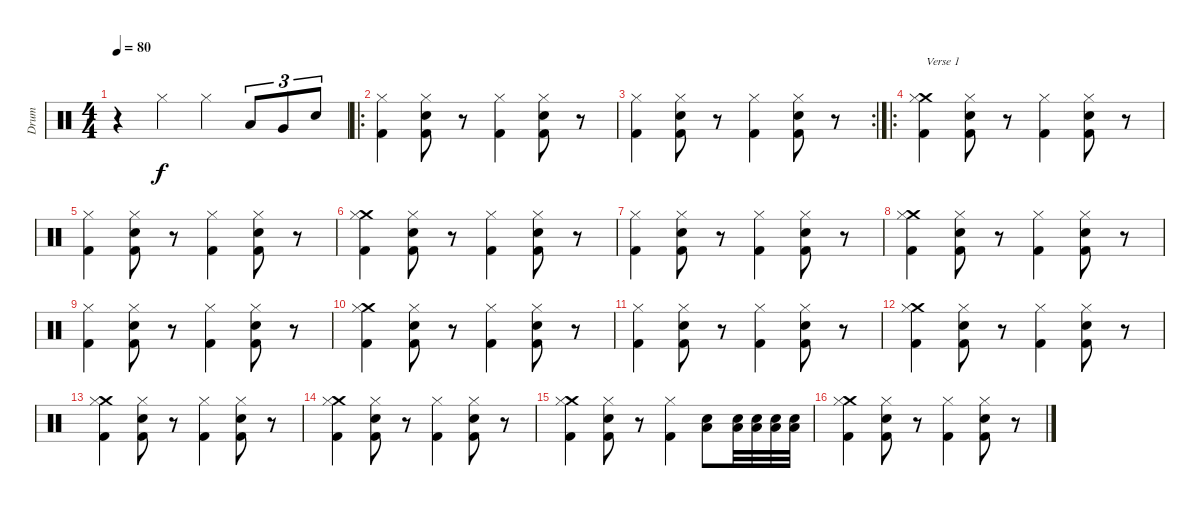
\track ("Drum" "Drum") {instrument percussion}
\staff {score}
\articulation defaults
\ts (4 4)
\tempo 80
\clef neutral
\ks c
r.4{dy f} "Hi-Hat (closed)".4 "Hi-Hat (closed)".4 "Low Tom (hit)".8{tu (3 2)} "Very Low Tom (hit)".8{tu (3 2)} "Electric Snare (hit)".8{tu (3 2)} |
\ro
("Kick (hit) 2" "Hi-Hat (closed)").4 ("Hi-Hat (closed)" "Electric Snare (hit)" "Kick (hit) 2").8 r.8 ("Kick (hit) 2" "Hi-Hat (closed)").4 ("Hi-Hat (closed)" "Electric Snare (hit)" "Kick (hit) 2").8 r.8 |
\rc 2
("Kick (hit) 2" "Hi-Hat (closed)").4 ("Hi-Hat (closed)" "Electric Snare (hit)" "Kick (hit) 2").8 r.8 ("Kick (hit) 2" "Hi-Hat (closed)").4 ("Hi-Hat (closed)" "Electric Snare (hit)" "Kick (hit) 2").8 r.8 |
\ro
("Crash medium (hit)" "Kick (hit) 2" "Hi-Hat (closed)").4{txt "Verse 1"} ("Hi-Hat (closed)" "Electric Snare (hit)" "Kick (hit) 2").8 r.8 ("Kick (hit) 2" "Hi-Hat (closed)").4 ("Hi-Hat (closed)" "Electric Snare (hit)" "Kick (hit) 2").8 r.8 |
("Kick (hit) 2" "Hi-Hat (closed)").4 ("Hi-Hat (closed)" "Electric Snare (hit)" "Kick (hit) 2").8 r.8 ("Kick (hit) 2" "Hi-Hat (closed)").4 ("Hi-Hat (closed)" "Electric Snare (hit)" "Kick (hit) 2").8 r.8 |
("Crash medium (hit)" "Kick (hit) 2" "Hi-Hat (closed)").4 ("Hi-Hat (closed)" "Electric Snare (hit)" "Kick (hit) 2").8 r.8 ("Kick (hit) 2" "Hi-Hat (closed)").4 ("Hi-Hat (closed)" "Electric Snare (hit)" "Kick (hit) 2").8 r.8 |
("Kick (hit) 2" "Hi-Hat (closed)").4 ("Hi-Hat (closed)" "Electric Snare (hit)" "Kick (hit) 2").8 r.8 ("Kick (hit) 2" "Hi-Hat (closed)").4 ("Hi-Hat (closed)" "Electric Snare (hit)" "Kick (hit) 2").8 r.8 |
("Crash medium (hit)" "Kick (hit) 2" "Hi-Hat (closed)").4 ("Hi-Hat (closed)" "Electric Snare (hit)" "Kick (hit) 2").8 r.8 ("Kick (hit) 2" "Hi-Hat (closed)").4 ("Hi-Hat (closed)" "Electric Snare (hit)" "Kick (hit) 2").8 r.8 |
("Kick (hit) 2" "Hi-Hat (closed)").4 ("Hi-Hat (closed)" "Electric Snare (hit)" "Kick (hit) 2").8 r.8 ("Kick (hit) 2" "Hi-Hat (closed)").4 ("Hi-Hat (closed)" "Electric Snare (hit)" "Kick (hit) 2").8 r.8 |
("Crash medium (hit)" "Kick (hit) 2" "Hi-Hat (closed)").4 ("Hi-Hat (closed)" "Electric Snare (hit)" "Kick (hit) 2").8 r.8 ("Kick (hit) 2" "Hi-Hat (closed)").4 ("Hi-Hat (closed)" "Electric Snare (hit)" "Kick (hit) 2").8 r.8 |
("Kick (hit) 2" "Hi-Hat (closed)").4 ("Hi-Hat (closed)" "Electric Snare (hit)" "Kick (hit) 2").8 r.8 ("Kick (hit) 2" "Hi-Hat (closed)").4 ("Hi-Hat (closed)" "Electric Snare (hit)" "Kick (hit) 2").8 r.8 |
("Crash medium (hit)" "Kick (hit) 2" "Hi-Hat (closed)").4 ("Hi-Hat (closed)" "Electric Snare (hit)" "Kick (hit) 2").8 r.8 ("Kick (hit) 2" "Hi-Hat (closed)").4 ("Hi-Hat (closed)" "Electric Snare (hit)" "Kick (hit) 2").8 r.8 |
("Crash medium (hit)" "Kick (hit) 2" "Hi-Hat (closed)").4 ("Hi-Hat (closed)" "Electric Snare (hit)" "Kick (hit) 2").8 r.8 ("Kick (hit) 2" "Hi-Hat (closed)").4 ("Hi-Hat (closed)" "Electric Snare (hit)" "Kick (hit) 2").8 r.8 |
("Crash medium (hit)" "Kick (hit) 2" "Hi-Hat (closed)").4 ("Hi-Hat (closed)" "Electric Snare (hit)" "Kick (hit) 2").8 r.8 ("Kick (hit) 2" "Hi-Hat (closed)").4 ("Hi-Hat (closed)" "Electric Snare (hit)" "Kick (hit) 2").8 r.8 |
("Crash medium (hit)" "Kick (hit) 2" "Hi-Hat (closed)").4 ("Hi-Hat (closed)" "Electric Snare (hit)" "Kick (hit) 2").8 r.8 ("Kick (hit) 2" "Hi-Hat (closed)").4 ("Low Floor Tom (hit)" "Electric Snare (hit)").8 ("Low Floor Tom (hit)" "Electric Snare (hit)").32 ("Low Floor Tom (hit)" "Electric Snare (hit)").32 ("Low Floor Tom (hit)" "Electric Snare (hit)").32 ("Low Floor Tom (hit)" "Electric Snare (hit)").32 |
("Crash medium (hit)" "Kick (hit) 2" "Hi-Hat (closed)").4 ("Hi-Hat (closed)" "Electric Snare (hit)" "Kick (hit) 2").8 r.8 ("Kick (hit) 2" "Hi-Hat (closed)").4 ("Hi-Hat (closed)" "Electric Snare (hit)" "Kick (hit) 2").8 r.8
